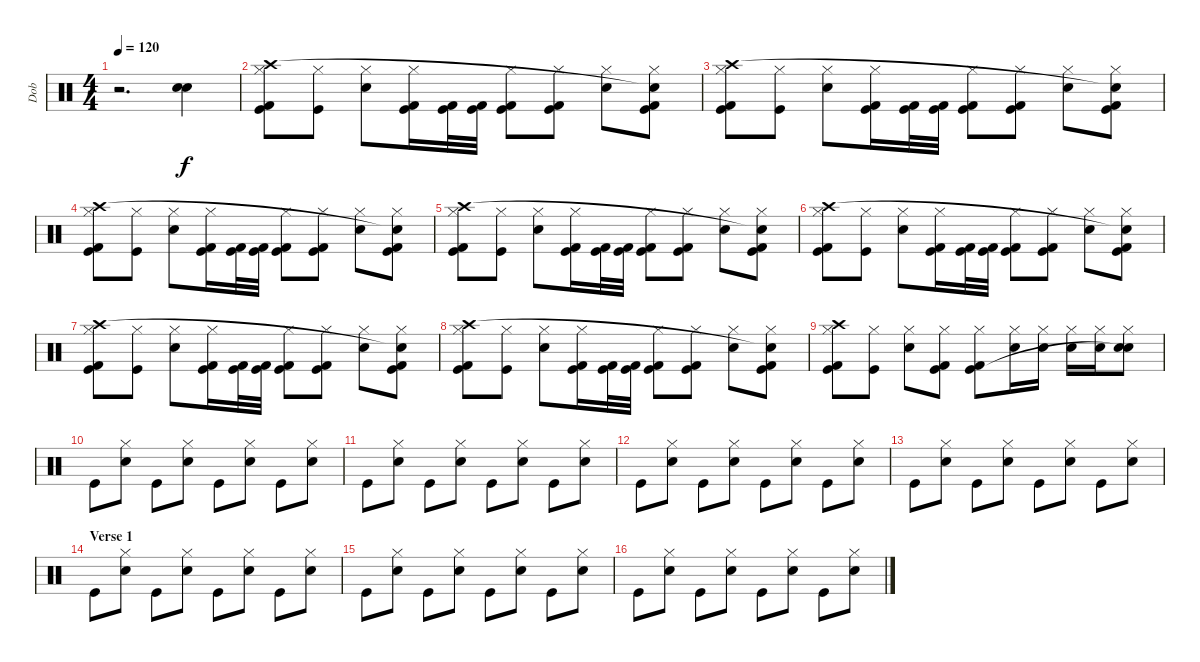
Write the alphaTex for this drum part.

\track ("Dob" "Dob") {instrument percussion}
\staff {score}
\articulation defaults
\ts (4 4)
\tempo 120
\clef neutral
\ks c
r.2{d dy f} ("Electric Snare (hit)" "Electric Snare (hit)").4 |
("Hi-Hat (closed)" "Kick (hit) 2" "Kick (hit)" "Crash high (hit)").8 ("Hi-Hat (closed)" "Kick (hit)").8 ("Hi-Hat (closed)" "Electric Snare (hit)").8 ("Hi-Hat (closed)" "Kick (hit) 2" "Kick (hit)").16 ("Kick (hit) 2" "Kick (hit)").32 ("Kick (hit) 2" "Kick (hit)").32 ("Hi-Hat (closed)" "Kick (hit) 2" "Kick (hit)").8 ("Hi-Hat (closed)" "Kick (hit) 2" "Kick (hit)").8 ("Hi-Hat (closed)" "Electric Snare (hit)").8 ("Hi-Hat (closed)" "Kick (hit) 2" "Kick (hit)" "Snare (hit)"{t}).8 |
("Hi-Hat (closed)" "Kick (hit) 2" "Kick (hit)" "Crash high (hit)").8 ("Hi-Hat (closed)" "Kick (hit)").8 ("Hi-Hat (closed)" "Electric Snare (hit)").8 ("Hi-Hat (closed)" "Kick (hit) 2" "Kick (hit)").16 ("Kick (hit) 2" "Kick (hit)").32 ("Kick (hit) 2" "Kick (hit)").32 ("Hi-Hat (closed)" "Kick (hit) 2" "Kick (hit)").8 ("Hi-Hat (closed)" "Kick (hit) 2" "Kick (hit)").8 ("Hi-Hat (closed)" "Electric Snare (hit)").8 ("Hi-Hat (closed)" "Kick (hit) 2" "Kick (hit)" "Snare (hit)"{t}).8 |
("Hi-Hat (closed)" "Kick (hit) 2" "Kick (hit)" "Crash high (hit)").8 ("Hi-Hat (closed)" "Kick (hit)").8 ("Hi-Hat (closed)" "Electric Snare (hit)").8 ("Hi-Hat (closed)" "Kick (hit) 2" "Kick (hit)").16 ("Kick (hit) 2" "Kick (hit)").32 ("Kick (hit) 2" "Kick (hit)").32 ("Hi-Hat (closed)" "Kick (hit) 2" "Kick (hit)").8 ("Hi-Hat (closed)" "Kick (hit) 2" "Kick (hit)").8 ("Hi-Hat (closed)" "Electric Snare (hit)").8 ("Hi-Hat (closed)" "Kick (hit) 2" "Kick (hit)" "Snare (hit)"{t}).8 |
("Hi-Hat (closed)" "Kick (hit) 2" "Kick (hit)" "Crash high (hit)").8 ("Hi-Hat (closed)" "Kick (hit)").8 ("Hi-Hat (closed)" "Electric Snare (hit)").8 ("Hi-Hat (closed)" "Kick (hit) 2" "Kick (hit)").16 ("Kick (hit) 2" "Kick (hit)").32 ("Kick (hit) 2" "Kick (hit)").32 ("Hi-Hat (closed)" "Kick (hit) 2" "Kick (hit)").8 ("Hi-Hat (closed)" "Kick (hit) 2" "Kick (hit)").8 ("Hi-Hat (closed)" "Electric Snare (hit)").8 ("Hi-Hat (closed)" "Kick (hit) 2" "Kick (hit)" "Snare (hit)"{t}).8 |
("Hi-Hat (closed)" "Kick (hit) 2" "Kick (hit)" "Crash high (hit)").8 ("Hi-Hat (closed)" "Kick (hit)").8 ("Hi-Hat (closed)" "Electric Snare (hit)").8 ("Hi-Hat (closed)" "Kick (hit) 2" "Kick (hit)").16 ("Kick (hit) 2" "Kick (hit)").32 ("Kick (hit) 2" "Kick (hit)").32 ("Hi-Hat (closed)" "Kick (hit) 2" "Kick (hit)").8 ("Hi-Hat (closed)" "Kick (hit) 2" "Kick (hit)").8 ("Hi-Hat (closed)" "Electric Snare (hit)").8 ("Hi-Hat (closed)" "Kick (hit) 2" "Kick (hit)" "Snare (hit)"{t}).8 |
("Hi-Hat (closed)" "Kick (hit) 2" "Kick (hit)" "Crash high (hit)").8 ("Hi-Hat (closed)" "Kick (hit)").8 ("Hi-Hat (closed)" "Electric Snare (hit)").8 ("Hi-Hat (closed)" "Kick (hit) 2" "Kick (hit)").16 ("Kick (hit) 2" "Kick (hit)").32 ("Kick (hit) 2" "Kick (hit)").32 ("Hi-Hat (closed)" "Kick (hit) 2" "Kick (hit)").8 ("Hi-Hat (closed)" "Kick (hit) 2" "Kick (hit)").8 ("Hi-Hat (closed)" "Electric Snare (hit)").8 ("Hi-Hat (closed)" "Kick (hit) 2" "Kick (hit)" "Snare (hit)"{t}).8 |
("Hi-Hat (closed)" "Kick (hit) 2" "Kick (hit)" "Crash high (hit)").8 ("Hi-Hat (closed)" "Kick (hit)").8 ("Hi-Hat (closed)" "Electric Snare (hit)").8 ("Hi-Hat (closed)" "Kick (hit) 2" "Kick (hit)").16 ("Kick (hit) 2" "Kick (hit)").32 ("Kick (hit) 2" "Kick (hit)").32 ("Hi-Hat (closed)" "Kick (hit) 2" "Kick (hit)").8 ("Hi-Hat (closed)" "Kick (hit) 2" "Kick (hit)").8 ("Hi-Hat (closed)" "Electric Snare (hit)").8 ("Hi-Hat (closed)" "Kick (hit) 2" "Kick (hit)" "Snare (hit)"{t}).8 |
("Hi-Hat (closed)" "Kick (hit) 2" "Kick (hit)" "Crash high (hit)").8 ("Hi-Hat (closed)" "Kick (hit)").8 ("Hi-Hat (closed)" "Electric Snare (hit)").8 ("Hi-Hat (closed)" "Kick (hit) 2" "Kick (hit)").8 ("Hi-Hat (closed)" "Kick (hit) 2" "Kick (hit)").8 ("Hi-Hat (closed)" "Electric Snare (hit)").16 ("Hi-Hat (closed)" "Electric Snare (hit)").16 ("Hi-Hat (closed)" "Electric Snare (hit)").16 ("Hi-Hat (closed)" "Electric Snare (hit)").16 ("Hi-Hat (closed)" "Electric Snare (hit)" "Snare (hit)"{t}).8 |
"Kick (hit)".8 ("Hi-Hat (closed)" "Electric Snare (hit)").8 "Kick (hit)".8 ("Hi-Hat (closed)" "Electric Snare (hit)").8 "Kick (hit)".8 ("Hi-Hat (closed)" "Electric Snare (hit)").8 "Kick (hit)".8 ("Hi-Hat (closed)" "Electric Snare (hit)").8 |
"Kick (hit)".8 ("Hi-Hat (closed)" "Electric Snare (hit)").8 "Kick (hit)".8 ("Hi-Hat (closed)" "Electric Snare (hit)").8 "Kick (hit)".8 ("Hi-Hat (closed)" "Electric Snare (hit)").8 "Kick (hit)".8 ("Hi-Hat (closed)" "Electric Snare (hit)").8 |
"Kick (hit)".8 ("Hi-Hat (closed)" "Electric Snare (hit)").8 "Kick (hit)".8 ("Hi-Hat (closed)" "Electric Snare (hit)").8 "Kick (hit)".8 ("Hi-Hat (closed)" "Electric Snare (hit)").8 "Kick (hit)".8 ("Hi-Hat (closed)" "Electric Snare (hit)").8 |
"Kick (hit)".8 ("Hi-Hat (closed)" "Electric Snare (hit)").8 "Kick (hit)".8 ("Hi-Hat (closed)" "Electric Snare (hit)").8 "Kick (hit)".8 ("Hi-Hat (closed)" "Electric Snare (hit)").8 "Kick (hit)".8 ("Hi-Hat (closed)" "Electric Snare (hit)").8 |
\section ("" "Verse 1")
"Kick (hit)".8 ("Hi-Hat (closed)" "Electric Snare (hit)").8 "Kick (hit)".8 ("Hi-Hat (closed)" "Electric Snare (hit)").8 "Kick (hit)".8 ("Hi-Hat (closed)" "Electric Snare (hit)").8 "Kick (hit)".8 ("Hi-Hat (closed)" "Electric Snare (hit)").8 |
"Kick (hit)".8 ("Hi-Hat (closed)" "Electric Snare (hit)").8 "Kick (hit)".8 ("Hi-Hat (closed)" "Electric Snare (hit)").8 "Kick (hit)".8 ("Hi-Hat (closed)" "Electric Snare (hit)").8 "Kick (hit)".8 ("Hi-Hat (closed)" "Electric Snare (hit)").8 |
"Kick (hit)".8 ("Hi-Hat (closed)" "Electric Snare (hit)").8 "Kick (hit)".8 ("Hi-Hat (closed)" "Electric Snare (hit)").8 "Kick (hit)".8 ("Hi-Hat (closed)" "Electric Snare (hit)").8 "Kick (hit)".8 ("Hi-Hat (closed)" "Electric Snare (hit)").8
